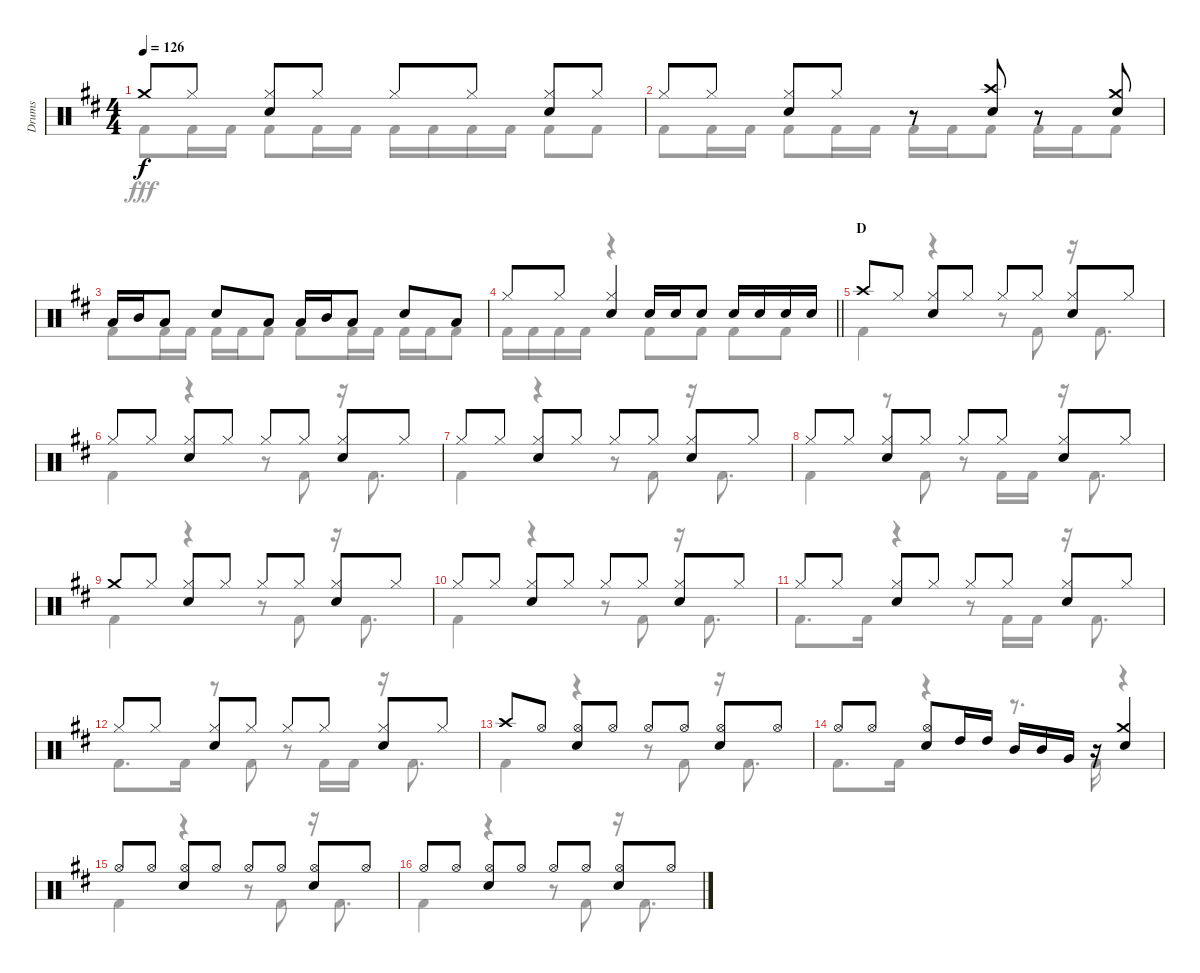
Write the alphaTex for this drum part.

\track ("Drums" "Drums") {instrument percussion}
\staff {score}
\articulation defaults
\voice
\ts (4 4)
\tempo 126
\clef neutral
\ks d "Crash medium (hit)".8{dy f} "Hi-Hat (closed)".8
("Hi-Hat (closed)" "Snare (hit) 2").8 "Hi-Hat (closed)".8 "Hi-Hat (closed)".8 "Hi-Hat (closed)".8 ("Hi-Hat (closed)" "Snare (hit) 2").8 "Hi-Hat (closed)".8 |
"Hi-Hat (closed)".8 "Hi-Hat (closed)".8 ("Hi-Hat (closed)" "Snare (hit) 2").8 "Hi-Hat (closed)".8 r.8 ("Crash high (hit)" "Snare (hit) 2").8 r.8 ("Crash medium (hit)" "Snare (hit) 2").8 |
"Low Tom (hit)".16 "Mid Tom (hit)".16 "Low Tom (hit)".8 "Snare (hit) 2".8 "Low Tom (hit)".8 "Low Tom (hit)".16 "Mid Tom (hit)".16 "Low Tom (hit)".8 "Snare (hit) 2".8 "Low Tom (hit)".8 |
\barLineRight lightlight "Hi-Hat (closed)".8 "Hi-Hat (closed)".8
("Hi-Hat (closed)" "Snare (hit) 2").4 "Snare (hit) 2".16 "Snare (hit) 2".16 "Snare (hit) 2".8 "Snare (hit) 2".16 "Snare (hit) 2".16 "Snare (hit) 2".16 "Snare (hit) 2".16 |
\section ("" "D")
"Crash high (hit)".8 "Hi-Hat (closed)".8 ("Hi-Hat (closed)" "Snare (hit) 2").8 "Hi-Hat (closed)".8 "Hi-Hat (closed)".8 "Hi-Hat (closed)".8 ("Hi-Hat (closed)" "Snare (hit) 2").8 "Hi-Hat (closed)".8 |
"Hi-Hat (closed)".8 "Hi-Hat (closed)".8 ("Hi-Hat (closed)" "Snare (hit) 2").8 "Hi-Hat (closed)".8 "Hi-Hat (closed)".8 "Hi-Hat (closed)".8 ("Hi-Hat (closed)" "Snare (hit) 2").8 "Hi-Hat (closed)".8 |
"Hi-Hat (closed)".8 "Hi-Hat (closed)".8 ("Hi-Hat (closed)" "Snare (hit) 2").8 "Hi-Hat (closed)".8 "Hi-Hat (closed)".8 "Hi-Hat (closed)".8 ("Hi-Hat (closed)" "Snare (hit) 2").8 "Hi-Hat (closed)".8 |
"Hi-Hat (closed)".8 "Hi-Hat (closed)".8 ("Hi-Hat (closed)" "Snare (hit) 2").8 "Hi-Hat (closed)".8 "Hi-Hat (closed)".8 "Hi-Hat (closed)".8 ("Hi-Hat (closed)" "Snare (hit) 2").8 "Hi-Hat (closed)".8 |
"Crash medium (hit)".8 "Hi-Hat (closed)".8 ("Hi-Hat (closed)" "Snare (hit) 2").8 "Hi-Hat (closed)".8 "Hi-Hat (closed)".8 "Hi-Hat (closed)".8 ("Hi-Hat (closed)" "Snare (hit) 2").8 "Hi-Hat (closed)".8 |
"Hi-Hat (closed)".8 "Hi-Hat (closed)".8 ("Hi-Hat (closed)" "Snare (hit) 2").8 "Hi-Hat (closed)".8 "Hi-Hat (closed)".8 "Hi-Hat (closed)".8 ("Hi-Hat (closed)" "Snare (hit) 2").8 "Hi-Hat (closed)".8 |
"Hi-Hat (closed)".8 "Hi-Hat (closed)".8 ("Hi-Hat (closed)" "Snare (hit) 2").8 "Hi-Hat (closed)".8 "Hi-Hat (closed)".8 "Hi-Hat (closed)".8 ("Hi-Hat (closed)" "Snare (hit) 2").8 "Hi-Hat (closed)".8 |
"Hi-Hat (closed)".8 "Hi-Hat (closed)".8 ("Hi-Hat (closed)" "Snare (hit) 2").8 "Hi-Hat (closed)".8 "Hi-Hat (closed)".8 "Hi-Hat (closed)".8 ("Hi-Hat (closed)" "Snare (hit) 2").8 "Hi-Hat (closed)".8 |
"Crash high (hit)".8 "Hi-Hat (open)".8 ("Hi-Hat (open)" "Snare (hit) 2").8 "Hi-Hat (open)".8 "Hi-Hat (open)".8 "Hi-Hat (open)".8 ("Hi-Hat (open)" "Snare (hit) 2").8 "Hi-Hat (open)".8 |
"Hi-Hat (open)".8 "Hi-Hat (open)".8 ("Hi-Hat (open)" "Snare (hit) 2").8 "High Tom (hit)".16 "High Tom (hit)".16 "Mid Tom (hit)".16 "Mid Tom (hit)".16 "Very Low Tom (hit)".16 r.16 ("Crash medium (hit)" "Snare (hit) 2").4 |
"Hi-Hat (open)".8 "Hi-Hat (open)".8 ("Hi-Hat (open)" "Snare (hit) 2").8 "Hi-Hat (open)".8 "Hi-Hat (open)".8 "Hi-Hat (open)".8 ("Hi-Hat (open)" "Snare (hit) 2").8 "Hi-Hat (open)".8 |
"Hi-Hat (open)".8 "Hi-Hat (open)".8 ("Hi-Hat (open)" "Snare (hit) 2").8 "Hi-Hat (open)".8 "Hi-Hat (open)".8 "Hi-Hat (open)".8 ("Hi-Hat (open)" "Snare (hit) 2").8 "Hi-Hat (open)".8
\voice
\clef neutral
\ottava regular
\simile none
\ks d "Kick (hit) 2".8{dy fff} "Kick (hit) 2".16 "Kick (hit) 2".16 "Kick (hit) 2".8 "Kick (hit) 2".16 "Kick (hit) 2".16 "Kick (hit) 2".16 "Kick (hit) 2".16 "Kick (hit) 2".16 "Kick (hit) 2".16 "Kick (hit) 2".8 "Kick (hit) 2".8
|
"Kick (hit) 2".8 "Kick (hit) 2".16 "Kick (hit) 2".16 "Kick (hit) 2".8 "Kick (hit) 2".16 "Kick (hit) 2".16 "Kick (hit) 2".16 "Kick (hit) 2".16 "Kick (hit) 2".8 "Kick (hit) 2".16 "Kick (hit) 2".16 "Kick (hit) 2".8 |
"Kick (hit) 2".8 "Kick (hit) 2".16 "Kick (hit) 2".16 "Kick (hit) 2".16 "Kick (hit) 2".16 "Kick (hit) 2".8 "Kick (hit) 2".8 "Kick (hit) 2".16 "Kick (hit) 2".16 "Kick (hit) 2".16 "Kick (hit) 2".16 "Kick (hit) 2".8 |
\barLineRight lightlight "Kick (hit) 2".16 "Kick (hit) 2".16 "Kick (hit) 2".16 "Kick (hit) 2".16
r.4 "Kick (hit) 2".8 "Kick (hit) 2".8 "Kick (hit) 2".8 "Kick (hit) 2".8 |
"Kick (hit) 2".4 r.4 r.8 "Kick (hit) 2".8 r.16 "Kick (hit) 2".8{d} |
"Kick (hit) 2".4 r.4 r.8 "Kick (hit) 2".8 r.16 "Kick (hit) 2".8{d} |
"Kick (hit) 2".4 r.4 r.8 "Kick (hit) 2".8 r.16 "Kick (hit) 2".8{d} |
"Kick (hit) 2".4 r.8 "Kick (hit) 2".8 r.8 "Kick (hit) 2".16 "Kick (hit) 2".16 r.16 "Kick (hit) 2".8{d} |
"Kick (hit) 2".4 r.4 r.8 "Kick (hit) 2".8 r.16 "Kick (hit) 2".8{d} |
"Kick (hit) 2".4 r.4 r.8 "Kick (hit) 2".8 r.16 "Kick (hit) 2".8{d} |
"Kick (hit) 2".8{d} "Kick (hit) 2".16 r.4 r.8 "Kick (hit) 2".16 "Kick (hit) 2".16 r.16 "Kick (hit) 2".8{d} |
"Kick (hit) 2".8{d} "Kick (hit) 2".16 r.8 "Kick (hit) 2".8 r.8 "Kick (hit) 2".16 "Kick (hit) 2".16 r.16 "Kick (hit) 2".8{d} |
"Kick (hit) 2".4 r.4 r.8 "Kick (hit) 2".8 r.16 "Kick (hit) 2".8{d} |
"Kick (hit) 2".8{d} "Kick (hit) 2".16 r.4 r.8{d} "Kick (hit) 2".16 r.4 |
"Kick (hit) 2".4 r.4 r.8 "Kick (hit) 2".8 r.16 "Kick (hit) 2".8{d} |
"Kick (hit) 2".4 r.4 r.8 "Kick (hit) 2".8 r.16 "Kick (hit) 2".8{d}
